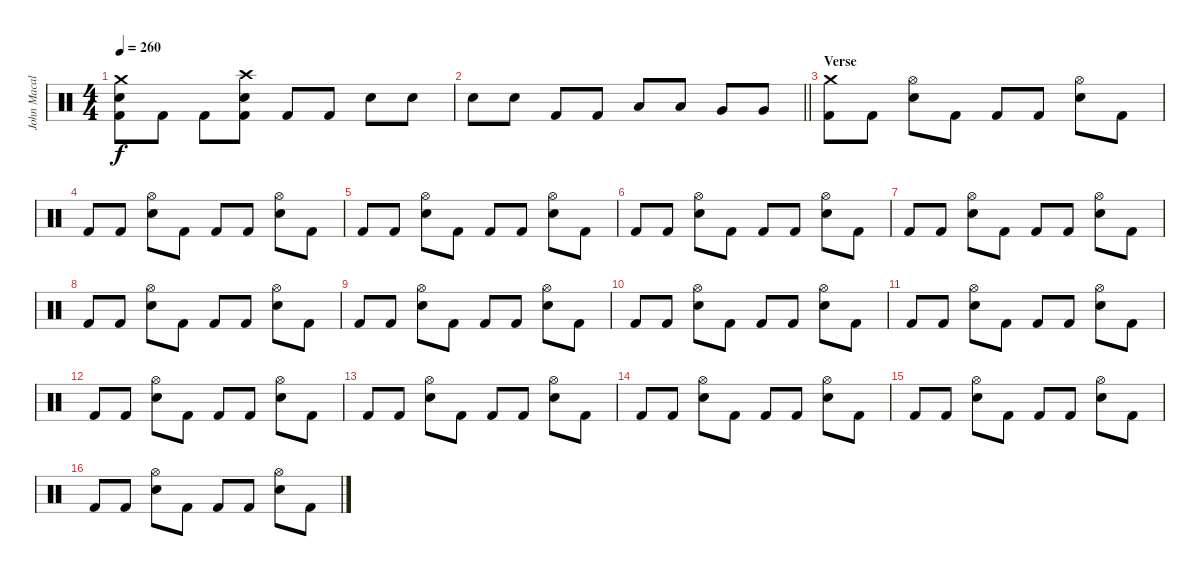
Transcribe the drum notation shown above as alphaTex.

\track ("John Macaluso" "John Macal") {instrument percussion}
\staff {score}
\articulation defaults
\ts (4 4)
\tempo 260
\clef neutral
\ks c
("Crash medium (hit)" "Snare (hit) 2" "Kick (hit) 2").8{dy f} "Kick (hit) 2".8 "Kick (hit) 2".8 ("Crash high (hit)" "Snare (hit) 2" "Kick (hit) 2").8 "Kick (hit) 2".8 "Kick (hit) 2".8 "Snare (hit) 2".8 "Snare (hit) 2".8 |
\barLineRight lightlight "Snare (hit) 2".8 "Snare (hit) 2".8 "Kick (hit) 2".8 "Kick (hit) 2".8 "Low Tom (hit)".8 "Low Tom (hit)".8 "Very Low Tom (hit)".8 "Very Low Tom (hit)".8
|
\section ("" "Verse")
("Crash medium (hit)" "Kick (hit) 2").8 "Kick (hit) 2".8 ("Hi-Hat (open)" "Snare (hit) 2").8 "Kick (hit) 2".8 "Kick (hit) 2".8 "Kick (hit) 2".8 ("Hi-Hat (open)" "Snare (hit) 2").8 "Kick (hit) 2".8 |
"Kick (hit) 2".8 "Kick (hit) 2".8 ("Hi-Hat (open)" "Snare (hit) 2").8 "Kick (hit) 2".8 "Kick (hit) 2".8 "Kick (hit) 2".8 ("Hi-Hat (open)" "Snare (hit) 2").8 "Kick (hit) 2".8 |
"Kick (hit) 2".8 "Kick (hit) 2".8 ("Hi-Hat (open)" "Snare (hit) 2").8 "Kick (hit) 2".8 "Kick (hit) 2".8 "Kick (hit) 2".8 ("Hi-Hat (open)" "Snare (hit) 2").8 "Kick (hit) 2".8 |
"Kick (hit) 2".8 "Kick (hit) 2".8 ("Hi-Hat (open)" "Snare (hit) 2").8 "Kick (hit) 2".8 "Kick (hit) 2".8 "Kick (hit) 2".8 ("Hi-Hat (open)" "Snare (hit) 2").8 "Kick (hit) 2".8 |
"Kick (hit) 2".8 "Kick (hit) 2".8 ("Hi-Hat (open)" "Snare (hit) 2").8 "Kick (hit) 2".8 "Kick (hit) 2".8 "Kick (hit) 2".8 ("Hi-Hat (open)" "Snare (hit) 2").8 "Kick (hit) 2".8 |
"Kick (hit) 2".8 "Kick (hit) 2".8 ("Hi-Hat (open)" "Snare (hit) 2").8 "Kick (hit) 2".8 "Kick (hit) 2".8 "Kick (hit) 2".8 ("Hi-Hat (open)" "Snare (hit) 2").8 "Kick (hit) 2".8 |
"Kick (hit) 2".8 "Kick (hit) 2".8 ("Hi-Hat (open)" "Snare (hit) 2").8 "Kick (hit) 2".8 "Kick (hit) 2".8 "Kick (hit) 2".8 ("Hi-Hat (open)" "Snare (hit) 2").8 "Kick (hit) 2".8 |
"Kick (hit) 2".8 "Kick (hit) 2".8 ("Hi-Hat (open)" "Snare (hit) 2").8 "Kick (hit) 2".8 "Kick (hit) 2".8 "Kick (hit) 2".8 ("Hi-Hat (open)" "Snare (hit) 2").8 "Kick (hit) 2".8 |
"Kick (hit) 2".8 "Kick (hit) 2".8 ("Hi-Hat (open)" "Snare (hit) 2").8 "Kick (hit) 2".8 "Kick (hit) 2".8 "Kick (hit) 2".8 ("Hi-Hat (open)" "Snare (hit) 2").8 "Kick (hit) 2".8 |
"Kick (hit) 2".8 "Kick (hit) 2".8 ("Hi-Hat (open)" "Snare (hit) 2").8 "Kick (hit) 2".8 "Kick (hit) 2".8 "Kick (hit) 2".8 ("Hi-Hat (open)" "Snare (hit) 2").8 "Kick (hit) 2".8 |
"Kick (hit) 2".8 "Kick (hit) 2".8 ("Hi-Hat (open)" "Snare (hit) 2").8 "Kick (hit) 2".8 "Kick (hit) 2".8 "Kick (hit) 2".8 ("Hi-Hat (open)" "Snare (hit) 2").8 "Kick (hit) 2".8 |
"Kick (hit) 2".8 "Kick (hit) 2".8 ("Hi-Hat (open)" "Snare (hit) 2").8 "Kick (hit) 2".8 "Kick (hit) 2".8 "Kick (hit) 2".8 ("Hi-Hat (open)" "Snare (hit) 2").8 "Kick (hit) 2".8 |
"Kick (hit) 2".8 "Kick (hit) 2".8 ("Hi-Hat (open)" "Snare (hit) 2").8 "Kick (hit) 2".8 "Kick (hit) 2".8 "Kick (hit) 2".8 ("Hi-Hat (open)" "Snare (hit) 2").8 "Kick (hit) 2".8 |
"Kick (hit) 2".8 "Kick (hit) 2".8 ("Hi-Hat (open)" "Snare (hit) 2").8 "Kick (hit) 2".8 "Kick (hit) 2".8 "Kick (hit) 2".8 ("Hi-Hat (open)" "Snare (hit) 2").8 "Kick (hit) 2".8
